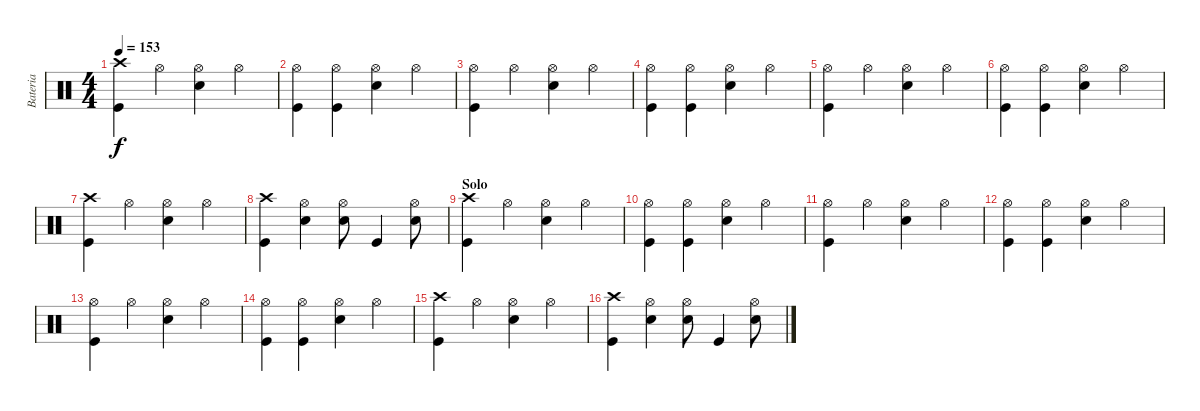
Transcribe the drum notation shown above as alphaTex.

\track ("Bateria" "Bateria") {instrument percussion}
\staff {score}
\articulation defaults
\ts (4 4)
\tempo 153
\clef neutral
\ks c
("Crash high (hit)" "Kick (hit)").4{dy f} "Hi-Hat (open)".4 ("Hi-Hat (open)" "Electric Snare (hit)").4 "Hi-Hat (open)".4 |
("Hi-Hat (open)" "Kick (hit)").4 ("Hi-Hat (open)" "Kick (hit)").4 ("Hi-Hat (open)" "Electric Snare (hit)").4 "Hi-Hat (open)".4 |
("Hi-Hat (open)" "Kick (hit)").4 "Hi-Hat (open)".4 ("Hi-Hat (open)" "Electric Snare (hit)").4 "Hi-Hat (open)".4 |
("Hi-Hat (open)" "Kick (hit)").4 ("Hi-Hat (open)" "Kick (hit)").4 ("Hi-Hat (open)" "Electric Snare (hit)").4 "Hi-Hat (open)".4 |
("Hi-Hat (open)" "Kick (hit)").4 "Hi-Hat (open)".4 ("Hi-Hat (open)" "Electric Snare (hit)").4 "Hi-Hat (open)".4 |
("Hi-Hat (open)" "Kick (hit)").4 ("Hi-Hat (open)" "Kick (hit)").4 ("Hi-Hat (open)" "Electric Snare (hit)").4 "Hi-Hat (open)".4 |
("Crash high (hit)" "Kick (hit)").4 "Hi-Hat (open)".4 ("Hi-Hat (open)" "Electric Snare (hit)").4 "Hi-Hat (open)".4 |
("Crash high (hit)" "Kick (hit)").4 ("Hi-Hat (open)" "Electric Snare (hit)").4 ("Hi-Hat (open)" "Electric Snare (hit)").8 "Kick (hit)".4 ("Hi-Hat (open)" "Electric Snare (hit)").8 |
\section ("" "Solo")
("Crash high (hit)" "Kick (hit)").4 "Hi-Hat (open)".4 ("Hi-Hat (open)" "Electric Snare (hit)").4 "Hi-Hat (open)".4 |
("Hi-Hat (open)" "Kick (hit)").4 ("Hi-Hat (open)" "Kick (hit)").4 ("Hi-Hat (open)" "Electric Snare (hit)").4 "Hi-Hat (open)".4 |
("Hi-Hat (open)" "Kick (hit)").4 "Hi-Hat (open)".4 ("Hi-Hat (open)" "Electric Snare (hit)").4 "Hi-Hat (open)".4 |
("Hi-Hat (open)" "Kick (hit)").4 ("Hi-Hat (open)" "Kick (hit)").4 ("Hi-Hat (open)" "Electric Snare (hit)").4 "Hi-Hat (open)".4 |
("Hi-Hat (open)" "Kick (hit)").4 "Hi-Hat (open)".4 ("Hi-Hat (open)" "Electric Snare (hit)").4 "Hi-Hat (open)".4 |
("Hi-Hat (open)" "Kick (hit)").4 ("Hi-Hat (open)" "Kick (hit)").4 ("Hi-Hat (open)" "Electric Snare (hit)").4 "Hi-Hat (open)".4 |
("Crash high (hit)" "Kick (hit)").4 "Hi-Hat (open)".4 ("Hi-Hat (open)" "Electric Snare (hit)").4 "Hi-Hat (open)".4 |
("Crash high (hit)" "Kick (hit)").4 ("Hi-Hat (open)" "Electric Snare (hit)").4 ("Hi-Hat (open)" "Electric Snare (hit)").8 "Kick (hit)".4 ("Hi-Hat (open)" "Electric Snare (hit)").8
